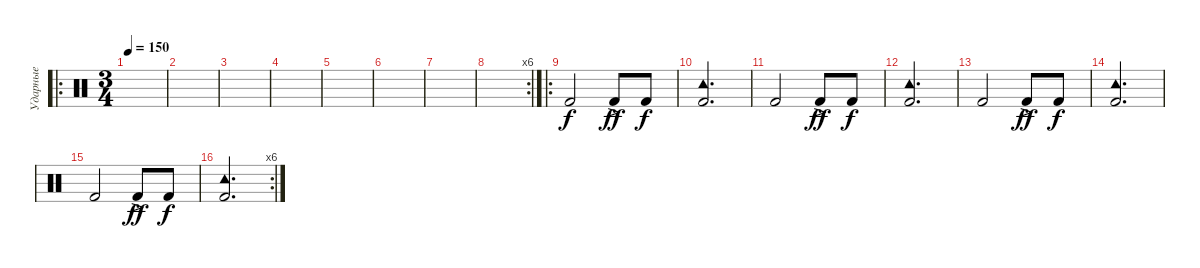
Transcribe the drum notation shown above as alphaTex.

\track ("Ударные" "Ударные") {instrument percussion}
\staff {score}
\articulation defaults
\ro
\ts (3 4)
\tempo 150
\clef neutral
\ks c
|
|
|
|
|
|
|
\rc 6
|
\ro "Kick (hit) 2".2 "Kick (hit) 2"{ac}.8{dy ff} "Kick (hit) 2".8{dy f}
|
("Kick (hit) 2" "Tambourine (hit)").2{d} |
"Kick (hit) 2".2 "Kick (hit) 2"{ac}.8{dy ff} "Kick (hit) 2".8{dy f} |
("Kick (hit) 2" "Tambourine (hit)").2{d} |
"Kick (hit) 2".2 "Kick (hit) 2"{ac}.8{dy ff} "Kick (hit) 2".8{dy f} |
("Kick (hit) 2" "Tambourine (hit)").2{d} |
"Kick (hit) 2".2 "Kick (hit) 2"{ac}.8{dy ff} "Kick (hit) 2".8{dy f} |
\rc 6
("Kick (hit) 2" "Tambourine (hit)").2{d}
